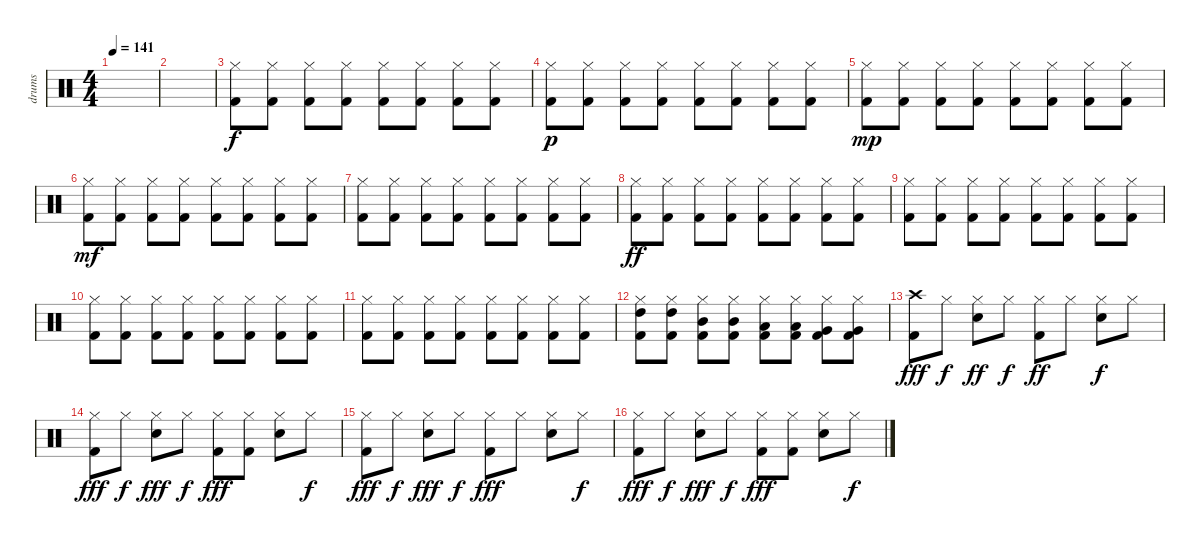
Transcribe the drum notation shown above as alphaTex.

\track ("drums" "drums") {instrument percussion}
\staff {score}
\articulation defaults
\ts (4 4)
\tempo 141
\clef neutral
\ks c
|
|
("Hi-Hat (closed)" "Kick (hit) 2").8 ("Hi-Hat (closed)" "Kick (hit) 2").8 ("Hi-Hat (closed)" "Kick (hit) 2").8 ("Hi-Hat (closed)" "Kick (hit) 2").8 ("Hi-Hat (closed)" "Kick (hit) 2").8 ("Hi-Hat (closed)" "Kick (hit) 2").8 ("Hi-Hat (closed)" "Kick (hit) 2").8 ("Hi-Hat (closed)" "Kick (hit) 2").8 |
("Hi-Hat (closed)" "Kick (hit) 2").8{dy p} ("Hi-Hat (closed)" "Kick (hit) 2").8 ("Hi-Hat (closed)" "Kick (hit) 2").8 ("Hi-Hat (closed)" "Kick (hit) 2").8 ("Hi-Hat (closed)" "Kick (hit) 2").8 ("Hi-Hat (closed)" "Kick (hit) 2").8 ("Hi-Hat (closed)" "Kick (hit) 2").8 ("Hi-Hat (closed)" "Kick (hit) 2").8 |
("Hi-Hat (closed)" "Kick (hit) 2").8{dy mp} ("Hi-Hat (closed)" "Kick (hit) 2").8 ("Hi-Hat (closed)" "Kick (hit) 2").8 ("Hi-Hat (closed)" "Kick (hit) 2").8 ("Hi-Hat (closed)" "Kick (hit) 2").8 ("Hi-Hat (closed)" "Kick (hit) 2").8 ("Hi-Hat (closed)" "Kick (hit) 2").8 ("Hi-Hat (closed)" "Kick (hit) 2").8 |
("Hi-Hat (closed)" "Kick (hit) 2").8{dy mf} ("Hi-Hat (closed)" "Kick (hit) 2").8 ("Hi-Hat (closed)" "Kick (hit) 2").8 ("Hi-Hat (closed)" "Kick (hit) 2").8 ("Hi-Hat (closed)" "Kick (hit) 2").8 ("Hi-Hat (closed)" "Kick (hit) 2").8 ("Hi-Hat (closed)" "Kick (hit) 2").8 ("Hi-Hat (closed)" "Kick (hit) 2").8 |
("Hi-Hat (closed)" "Kick (hit) 2").8 ("Hi-Hat (closed)" "Kick (hit) 2").8 ("Hi-Hat (closed)" "Kick (hit) 2").8 ("Hi-Hat (closed)" "Kick (hit) 2").8 ("Hi-Hat (closed)" "Kick (hit) 2").8 ("Hi-Hat (closed)" "Kick (hit) 2").8 ("Hi-Hat (closed)" "Kick (hit) 2").8 ("Hi-Hat (closed)" "Kick (hit) 2").8 |
("Hi-Hat (closed)" "Kick (hit) 2").8{dy ff} ("Hi-Hat (closed)" "Kick (hit) 2").8 ("Hi-Hat (closed)" "Kick (hit) 2").8 ("Hi-Hat (closed)" "Kick (hit) 2").8 ("Hi-Hat (closed)" "Kick (hit) 2").8 ("Hi-Hat (closed)" "Kick (hit) 2").8 ("Hi-Hat (closed)" "Kick (hit) 2").8 ("Hi-Hat (closed)" "Kick (hit) 2").8 |
("Hi-Hat (closed)" "Kick (hit) 2").8 ("Hi-Hat (closed)" "Kick (hit) 2").8 ("Hi-Hat (closed)" "Kick (hit) 2").8 ("Hi-Hat (closed)" "Kick (hit) 2").8 ("Hi-Hat (closed)" "Kick (hit) 2").8 ("Hi-Hat (closed)" "Kick (hit) 2").8 ("Hi-Hat (closed)" "Kick (hit) 2").8 ("Hi-Hat (closed)" "Kick (hit) 2").8 |
("Hi-Hat (closed)" "Kick (hit) 2").8 ("Hi-Hat (closed)" "Kick (hit) 2").8 ("Hi-Hat (closed)" "Kick (hit) 2").8 ("Hi-Hat (closed)" "Kick (hit) 2").8 ("Hi-Hat (closed)" "Kick (hit) 2").8 ("Hi-Hat (closed)" "Kick (hit) 2").8 ("Hi-Hat (closed)" "Kick (hit) 2").8 ("Hi-Hat (closed)" "Kick (hit) 2").8 |
("Hi-Hat (closed)" "Kick (hit) 2").8 ("Hi-Hat (closed)" "Kick (hit) 2").8 ("Hi-Hat (closed)" "Kick (hit) 2").8 ("Hi-Hat (closed)" "Kick (hit) 2").8 ("Hi-Hat (closed)" "Kick (hit) 2").8 ("Hi-Hat (closed)" "Kick (hit) 2").8 ("Hi-Hat (closed)" "Kick (hit) 2").8 ("Hi-Hat (closed)" "Kick (hit) 2").8 |
("Hi-Hat (closed)" "Kick (hit) 2" "High Tom (hit)").8 ("Hi-Hat (closed)" "Kick (hit) 2" "High Tom (hit)").8 ("Hi-Hat (closed)" "Kick (hit) 2" "Mid Tom (hit)").8 ("Hi-Hat (closed)" "Kick (hit) 2" "Mid Tom (hit)").8 ("Hi-Hat (closed)" "Kick (hit) 2" "Low Tom (hit)").8 ("Hi-Hat (closed)" "Kick (hit) 2" "Low Tom (hit)").8 ("Hi-Hat (closed)" "Kick (hit) 2" "Very Low Tom (hit)").8 ("Hi-Hat (closed)" "Kick (hit) 2" "Very Low Tom (hit)").8 |
("Crash high (hit)" "Kick (hit) 2").8{dy fff} "Hi-Hat (closed)".8{dy f} ("Hi-Hat (closed)" "Snare (hit) 2").8{dy ff} "Hi-Hat (closed)".8{dy f} ("Hi-Hat (closed)" "Kick (hit) 2").8{dy ff} "Hi-Hat (closed)".8 ("Hi-Hat (closed)" "Snare (hit) 2").8{dy f} "Hi-Hat (closed)".8 |
("Hi-Hat (closed)" "Kick (hit) 2").8{dy fff} "Hi-Hat (closed)".8{dy f} ("Hi-Hat (closed)" "Snare (hit) 2").8{dy fff} "Hi-Hat (closed)".8{dy f} ("Hi-Hat (closed)" "Kick (hit) 2").8{dy fff} ("Hi-Hat (closed)" "Kick (hit) 2").8 ("Hi-Hat (closed)" "Snare (hit) 2").8 "Hi-Hat (closed)".8{dy f} |
("Hi-Hat (closed)" "Kick (hit) 2").8{dy fff} "Hi-Hat (closed)".8{dy f} ("Hi-Hat (closed)" "Snare (hit) 2").8{dy fff} "Hi-Hat (closed)".8{dy f} ("Hi-Hat (closed)" "Kick (hit) 2").8{dy fff} "Hi-Hat (closed)".8 ("Hi-Hat (closed)" "Snare (hit) 2").8 "Hi-Hat (closed)".8{dy f} |
("Hi-Hat (closed)" "Kick (hit) 2").8{dy fff} "Hi-Hat (closed)".8{dy f} ("Hi-Hat (closed)" "Snare (hit) 2").8{dy fff} "Hi-Hat (closed)".8{dy f} ("Hi-Hat (closed)" "Kick (hit) 2").8{dy fff} ("Hi-Hat (closed)" "Kick (hit) 2").8 ("Hi-Hat (closed)" "Snare (hit) 2").8 "Hi-Hat (closed)".8{dy f}
